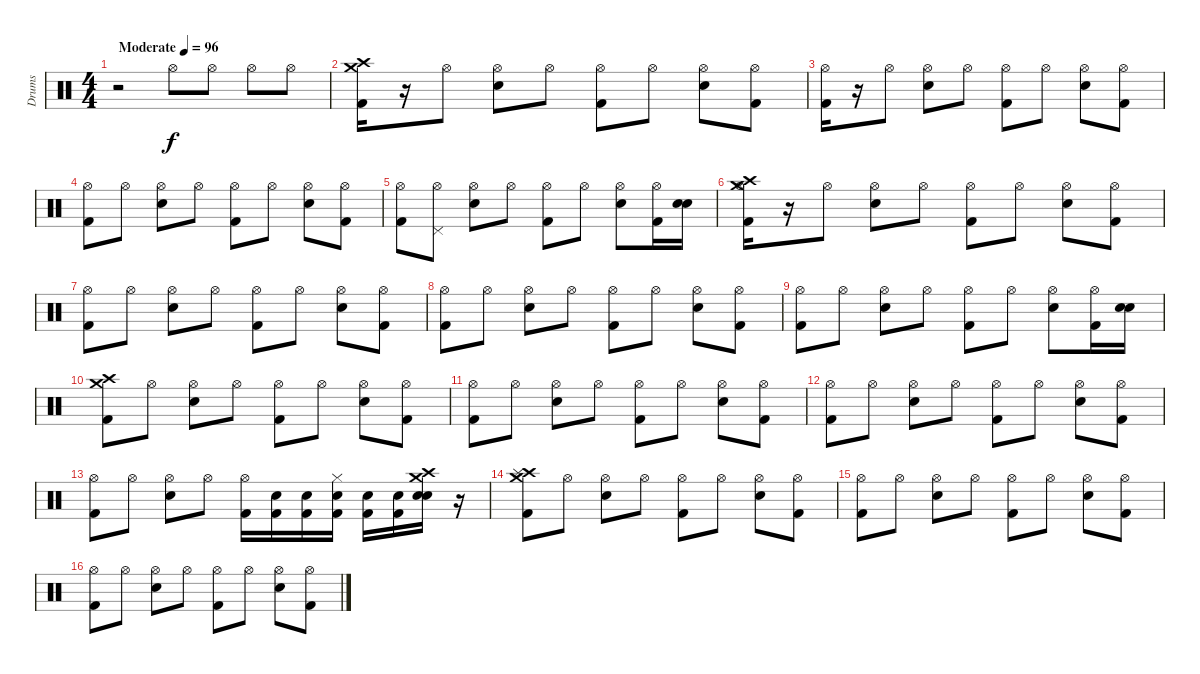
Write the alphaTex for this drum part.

\track ("Drums" "Drums") {instrument percussion}
\staff {score}
\articulation defaults
\ts (4 4)
\tempo (96 "Moderate")
\clef neutral
\ks c
r.2{dy f} "Hi-Hat (open)".8 "Hi-Hat (open)".8 "Hi-Hat (open)".8 "Hi-Hat (open)".8 |
("Crash medium (hit)" "Crash high (hit)" "Kick (hit) 2").16 r.16 "Hi-Hat (open)".8 ("Snare (hit) 2" "Hi-Hat (open)").8 "Hi-Hat (open)".8 ("Kick (hit) 2" "Hi-Hat (open)").8 "Hi-Hat (open)".8 ("Snare (hit) 2" "Hi-Hat (open)").8 ("Kick (hit) 2" "Hi-Hat (open)").8 |
("Kick (hit) 2" "Hi-Hat (open)").16 r.16 "Hi-Hat (open)".8 ("Snare (hit) 2" "Hi-Hat (open)").8 "Hi-Hat (open)".8 ("Kick (hit) 2" "Hi-Hat (open)").8 "Hi-Hat (open)".8 ("Snare (hit) 2" "Hi-Hat (open)").8 ("Hi-Hat (open)" "Kick (hit) 2").8 |
("Hi-Hat (open)" "Kick (hit) 2").8 "Hi-Hat (open)".8 ("Snare (hit) 2" "Hi-Hat (open)").8 "Hi-Hat (open)".8 ("Kick (hit) 2" "Hi-Hat (open)").8 "Hi-Hat (open)".8 ("Snare (hit) 2" "Hi-Hat (open)").8 ("Kick (hit) 2" "Hi-Hat (open)").8 |
("Hi-Hat (open)" "Kick (hit) 2").8 ("Pedal Hi-Hat (hit)" "Hi-Hat (open)").8 ("Snare (hit) 2" "Hi-Hat (open)").8 "Hi-Hat (open)".8 ("Kick (hit) 2" "Hi-Hat (open)").8 "Hi-Hat (open)".8 ("Snare (hit) 2" "Hi-Hat (open)").8 ("Kick (hit) 2" "Hi-Hat (open)").16 ("Snare (hit)" "Snare (hit) 2").16 |
("Crash high (hit)" "Crash medium (hit)" "Hi-Hat (open)" "Kick (hit) 2").16 r.16 "Hi-Hat (open)".8 ("Snare (hit) 2" "Hi-Hat (open)").8 "Hi-Hat (open)".8 ("Kick (hit) 2" "Hi-Hat (open)").8 "Hi-Hat (open)".8 ("Snare (hit) 2" "Hi-Hat (open)").8 ("Kick (hit) 2" "Hi-Hat (open)").8 |
("Kick (hit) 2" "Hi-Hat (open)").8 "Hi-Hat (open)".8 ("Snare (hit) 2" "Hi-Hat (open)").8 "Hi-Hat (open)".8 ("Kick (hit) 2" "Hi-Hat (open)").8 "Hi-Hat (open)".8 ("Snare (hit) 2" "Hi-Hat (open)").8 ("Kick (hit) 2" "Hi-Hat (open)").8 |
("Hi-Hat (open)" "Kick (hit) 2").8 "Hi-Hat (open)".8 ("Snare (hit) 2" "Hi-Hat (open)").8 "Hi-Hat (open)".8 ("Kick (hit) 2" "Hi-Hat (open)").8 "Hi-Hat (open)".8 ("Snare (hit) 2" "Hi-Hat (open)").8 ("Kick (hit) 2" "Hi-Hat (open)").8 |
("Hi-Hat (open)" "Kick (hit) 2").8 "Hi-Hat (open)".8 ("Hi-Hat (open)" "Snare (hit) 2").8 "Hi-Hat (open)".8 ("Hi-Hat (open)" "Kick (hit) 2").8 "Hi-Hat (open)".8 ("Hi-Hat (open)" "Snare (hit) 2").8 ("Kick (hit) 2" "Hi-Hat (open)").16 ("Snare (hit)" "Snare (hit) 2").16 |
("Crash high (hit)" "Crash medium (hit)" "Kick (hit) 2").8 "Hi-Hat (open)".8 ("Snare (hit) 2" "Hi-Hat (open)").8 "Hi-Hat (open)".8 ("Kick (hit) 2" "Hi-Hat (open)").8 "Hi-Hat (open)".8 ("Snare (hit) 2" "Hi-Hat (open)").8 ("Kick (hit) 2" "Hi-Hat (open)").8 |
("Hi-Hat (open)" "Kick (hit) 2").8 "Hi-Hat (open)".8 ("Snare (hit) 2" "Hi-Hat (open)").8 "Hi-Hat (open)".8 ("Kick (hit) 2" "Hi-Hat (open)").8 "Hi-Hat (open)".8 ("Snare (hit) 2" "Hi-Hat (open)").8 ("Kick (hit) 2" "Hi-Hat (open)").8 |
("Hi-Hat (open)" "Kick (hit) 2").8 "Hi-Hat (open)".8 ("Snare (hit) 2" "Hi-Hat (open)").8 "Hi-Hat (open)".8 ("Kick (hit) 2" "Hi-Hat (open)").8 "Hi-Hat (open)".8 ("Snare (hit) 2" "Hi-Hat (open)").8 ("Kick (hit) 2" "Hi-Hat (open)").8 |
("Hi-Hat (open)" "Kick (hit) 2").8 "Hi-Hat (open)".8 ("Hi-Hat (open)" "Snare (hit) 2").8 "Hi-Hat (open)".8 ("Kick (hit) 2" "Hi-Hat (open)").16 ("Snare (hit)" "Kick (hit) 2").16 ("Snare (hit)" "Kick (hit) 2").16 ("Snare (hit)" "Kick (hit) 2" "Hi-Hat (closed)").16 ("Snare (hit)" "Kick (hit) 2").16 ("Snare (hit)" "Kick (hit) 2").16 ("Snare (hit)" "Snare (hit) 2" "Crash high (hit)" "Crash medium (hit)").16 r.16 |
("Crash high (hit)" "Crash medium (hit)" "Splash (hit)" "Kick (hit) 2").8 "Hi-Hat (open)".8 ("Snare (hit) 2" "Hi-Hat (open)").8 "Hi-Hat (open)".8 ("Kick (hit) 2" "Hi-Hat (open)").8 "Hi-Hat (open)".8 ("Snare (hit) 2" "Hi-Hat (open)").8 ("Kick (hit) 2" "Hi-Hat (open)").8 |
("Hi-Hat (open)" "Kick (hit) 2").8 "Hi-Hat (open)".8 ("Hi-Hat (open)" "Snare (hit) 2").8 "Hi-Hat (open)".8 ("Hi-Hat (open)" "Kick (hit) 2").8 "Hi-Hat (open)".8 ("Hi-Hat (open)" "Snare (hit) 2").8 ("Hi-Hat (open)" "Kick (hit) 2").8 |
("Hi-Hat (open)" "Kick (hit) 2").8 "Hi-Hat (open)".8 ("Hi-Hat (open)" "Snare (hit) 2").8 "Hi-Hat (open)".8 ("Hi-Hat (open)" "Kick (hit) 2").8 "Hi-Hat (open)".8 ("Hi-Hat (open)" "Snare (hit) 2").8 ("Hi-Hat (open)" "Kick (hit) 2").8
